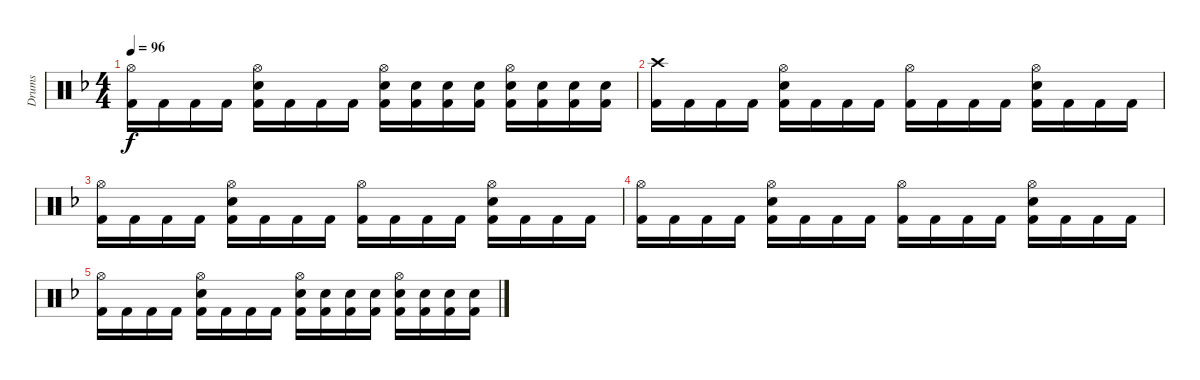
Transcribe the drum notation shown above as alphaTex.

\track ("Drums" "Drums") {instrument percussion}
\staff {score}
\articulation defaults
\ts (4 4)
\tempo 96
\clef neutral
\ks dminor
("Hi-Hat (open)" "Kick (hit) 2").16{dy f} "Kick (hit) 2".16 "Kick (hit) 2".16 "Kick (hit) 2".16 ("Hi-Hat (open)" "Snare (hit) 2" "Kick (hit) 2").16 "Kick (hit) 2".16 "Kick (hit) 2".16 "Kick (hit) 2".16 ("Hi-Hat (open)" "Snare (hit) 2" "Kick (hit) 2").16 ("Snare (hit) 2" "Kick (hit) 2").16 ("Snare (hit) 2" "Kick (hit) 2").16 ("Snare (hit) 2" "Kick (hit) 2").16 ("Hi-Hat (open)" "Snare (hit) 2" "Kick (hit) 2").16 ("Snare (hit) 2" "Kick (hit) 2").16 ("Snare (hit) 2" "Kick (hit) 2").16 ("Snare (hit) 2" "Kick (hit) 2").16 |
("Crash high (hit)" "Kick (hit) 2").16 "Kick (hit) 2".16 "Kick (hit) 2".16 "Kick (hit) 2".16 ("Hi-Hat (open)" "Snare (hit) 2" "Kick (hit) 2").16 "Kick (hit) 2".16 "Kick (hit) 2".16 "Kick (hit) 2".16 ("Hi-Hat (open)" "Kick (hit) 2").16 "Kick (hit) 2".16 "Kick (hit) 2".16 "Kick (hit) 2".16 ("Hi-Hat (open)" "Snare (hit) 2" "Kick (hit) 2").16 "Kick (hit) 2".16 "Kick (hit) 2".16 "Kick (hit) 2".16 |
("Hi-Hat (open)" "Kick (hit) 2").16 "Kick (hit) 2".16 "Kick (hit) 2".16 "Kick (hit) 2".16 ("Hi-Hat (open)" "Snare (hit) 2" "Kick (hit) 2").16 "Kick (hit) 2".16 "Kick (hit) 2".16 "Kick (hit) 2".16 ("Hi-Hat (open)" "Kick (hit) 2").16 "Kick (hit) 2".16 "Kick (hit) 2".16 "Kick (hit) 2".16 ("Hi-Hat (open)" "Snare (hit) 2" "Kick (hit) 2").16 "Kick (hit) 2".16 "Kick (hit) 2".16 "Kick (hit) 2".16 |
("Hi-Hat (open)" "Kick (hit) 2").16 "Kick (hit) 2".16 "Kick (hit) 2".16 "Kick (hit) 2".16 ("Hi-Hat (open)" "Snare (hit) 2" "Kick (hit) 2").16 "Kick (hit) 2".16 "Kick (hit) 2".16 "Kick (hit) 2".16 ("Hi-Hat (open)" "Kick (hit) 2").16 "Kick (hit) 2".16 "Kick (hit) 2".16 "Kick (hit) 2".16 ("Hi-Hat (open)" "Snare (hit) 2" "Kick (hit) 2").16 "Kick (hit) 2".16 "Kick (hit) 2".16 "Kick (hit) 2".16 |
("Hi-Hat (open)" "Kick (hit) 2").16 "Kick (hit) 2".16 "Kick (hit) 2".16 "Kick (hit) 2".16 ("Hi-Hat (open)" "Snare (hit) 2" "Kick (hit) 2").16 "Kick (hit) 2".16 "Kick (hit) 2".16 "Kick (hit) 2".16 ("Hi-Hat (open)" "Snare (hit) 2" "Kick (hit) 2").16 ("Snare (hit) 2" "Kick (hit) 2").16 ("Snare (hit) 2" "Kick (hit) 2").16 ("Snare (hit) 2" "Kick (hit) 2").16 ("Hi-Hat (open)" "Snare (hit) 2" "Kick (hit) 2").16 ("Snare (hit) 2" "Kick (hit) 2").16 ("Snare (hit) 2" "Kick (hit) 2").16 ("Snare (hit) 2" "Kick (hit) 2").16
